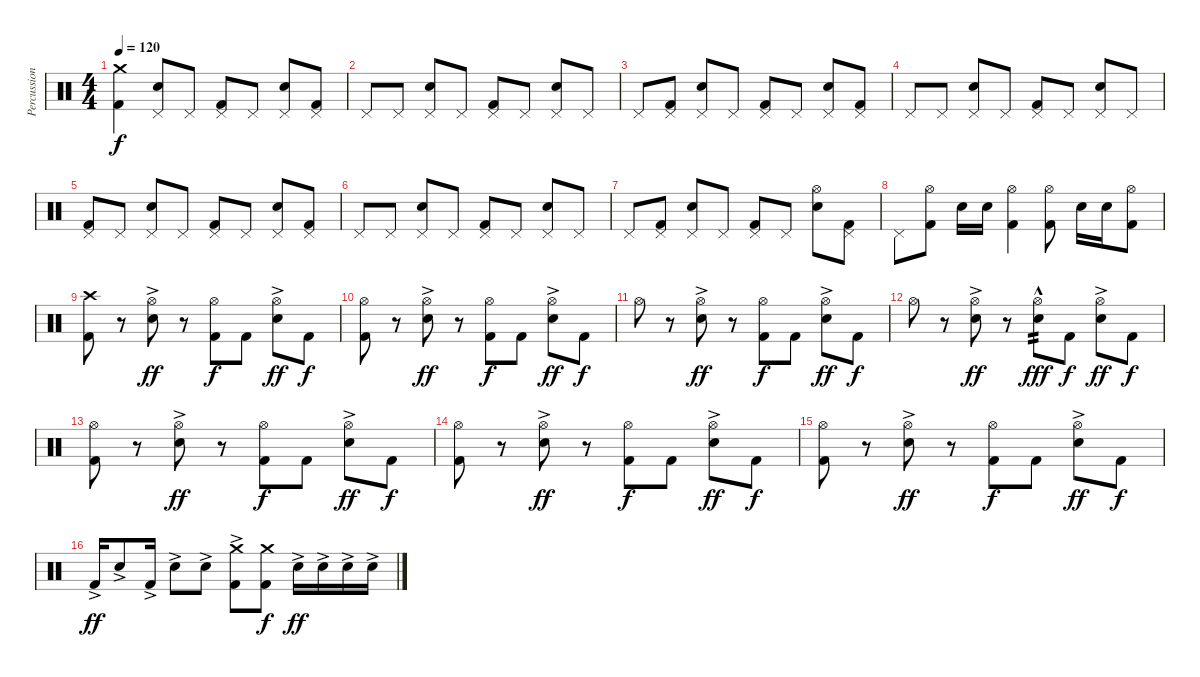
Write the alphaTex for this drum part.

\track ("Percussion" "Percussion") {instrument percussion}
\staff {score}
\articulation defaults
\ts (4 4)
\tempo 120
\clef neutral
\ks c
("Crash medium (hit)" "Kick (hit) 2").4{dy f} ("Pedal Hi-Hat (hit)" "Electric Snare (hit)").8 "Pedal Hi-Hat (hit)".8 ("Pedal Hi-Hat (hit)" "Kick (hit) 2").8 "Pedal Hi-Hat (hit)".8 ("Pedal Hi-Hat (hit)" "Electric Snare (hit)").8 ("Pedal Hi-Hat (hit)" "Kick (hit) 2").8 |
"Pedal Hi-Hat (hit)".8 "Pedal Hi-Hat (hit)".8 ("Pedal Hi-Hat (hit)" "Electric Snare (hit)").8 "Pedal Hi-Hat (hit)".8 ("Pedal Hi-Hat (hit)" "Kick (hit) 2").8 "Pedal Hi-Hat (hit)".8 ("Pedal Hi-Hat (hit)" "Electric Snare (hit)").8 "Pedal Hi-Hat (hit)".8 |
"Pedal Hi-Hat (hit)".8 ("Pedal Hi-Hat (hit)" "Kick (hit) 2").8 ("Pedal Hi-Hat (hit)" "Electric Snare (hit)").8 "Pedal Hi-Hat (hit)".8 ("Pedal Hi-Hat (hit)" "Kick (hit) 2").8 "Pedal Hi-Hat (hit)".8 ("Pedal Hi-Hat (hit)" "Electric Snare (hit)").8 ("Pedal Hi-Hat (hit)" "Kick (hit) 2").8 |
"Pedal Hi-Hat (hit)".8 "Pedal Hi-Hat (hit)".8 ("Pedal Hi-Hat (hit)" "Electric Snare (hit)").8 "Pedal Hi-Hat (hit)".8 ("Pedal Hi-Hat (hit)" "Kick (hit) 2").8 "Pedal Hi-Hat (hit)".8 ("Pedal Hi-Hat (hit)" "Electric Snare (hit)").8 "Pedal Hi-Hat (hit)".8 |
("Pedal Hi-Hat (hit)" "Kick (hit) 2").8 "Pedal Hi-Hat (hit)".8 ("Pedal Hi-Hat (hit)" "Electric Snare (hit)").8 "Pedal Hi-Hat (hit)".8 ("Pedal Hi-Hat (hit)" "Kick (hit) 2").8 "Pedal Hi-Hat (hit)".8 ("Pedal Hi-Hat (hit)" "Electric Snare (hit)").8 ("Pedal Hi-Hat (hit)" "Kick (hit) 2").8 |
"Pedal Hi-Hat (hit)".8 "Pedal Hi-Hat (hit)".8 ("Pedal Hi-Hat (hit)" "Electric Snare (hit)").8 "Pedal Hi-Hat (hit)".8 ("Pedal Hi-Hat (hit)" "Kick (hit) 2").8 "Pedal Hi-Hat (hit)".8 ("Pedal Hi-Hat (hit)" "Electric Snare (hit)").8 "Pedal Hi-Hat (hit)".8 |
"Pedal Hi-Hat (hit)".8 ("Pedal Hi-Hat (hit)" "Kick (hit) 2").8 ("Pedal Hi-Hat (hit)" "Electric Snare (hit)").8 "Pedal Hi-Hat (hit)".8 ("Pedal Hi-Hat (hit)" "Kick (hit) 2").8 "Pedal Hi-Hat (hit)".8 ("Hi-Hat (open)" "Electric Snare (hit)").8 ("Pedal Hi-Hat (hit)" "Kick (hit) 2").8 |
"Pedal Hi-Hat (hit)".8 ("Hi-Hat (open)" "Kick (hit) 2").8 "Electric Snare (hit)".16 "Electric Snare (hit)".16 ("Hi-Hat (open)" "Kick (hit) 2").4 ("Hi-Hat (open)" "Kick (hit) 2").8 "Electric Snare (hit)".16 "Electric Snare (hit)".16 ("Hi-Hat (open)" "Kick (hit) 2").8 |
("Crash high (hit)" "Kick (hit) 2").8 r.8 ("Electric Snare (hit)"{ac} "Hi-Hat (open)").8{dy ff} r.8 ("Kick (hit) 2" "Hi-Hat (open)").8{dy f} "Kick (hit) 2".8 ("Electric Snare (hit)"{ac} "Hi-Hat (open)").8{dy ff} "Kick (hit) 2".8{dy f} |
("Hi-Hat (open)" "Kick (hit) 2").8 r.8 ("Electric Snare (hit)"{ac} "Hi-Hat (open)").8{dy ff} r.8 ("Kick (hit) 2" "Hi-Hat (open)").8{dy f} "Kick (hit) 2".8 ("Electric Snare (hit)"{ac} "Hi-Hat (open)").8{dy ff} "Kick (hit) 2".8{dy f} |
"Hi-Hat (open)".8 r.8 ("Electric Snare (hit)"{ac} "Hi-Hat (open)").8{dy ff} r.8 ("Kick (hit) 2" "Hi-Hat (open)").8{dy f} "Kick (hit) 2".8 ("Electric Snare (hit)"{ac} "Hi-Hat (open)").8{dy ff} "Kick (hit) 2".8{dy f} |
"Hi-Hat (open)".8 r.8 ("Electric Snare (hit)"{ac} "Hi-Hat (open)").8{dy ff} r.8 ("Electric Snare (hit)"{hac} "Hi-Hat (open)").8{tp 2 dy fff} "Kick (hit) 2".8{dy f} ("Electric Snare (hit)"{ac} "Hi-Hat (open)").8{dy ff} "Kick (hit) 2".8{dy f} |
("Hi-Hat (open)" "Kick (hit) 2").8 r.8 ("Electric Snare (hit)"{ac} "Hi-Hat (open)").8{dy ff} r.8 ("Kick (hit) 2" "Hi-Hat (open)").8{dy f} "Kick (hit) 2".8 ("Electric Snare (hit)"{ac} "Hi-Hat (open)").8{dy ff} "Kick (hit) 2".8{dy f} |
("Hi-Hat (open)" "Kick (hit) 2").8 r.8 ("Electric Snare (hit)"{ac} "Hi-Hat (open)").8{dy ff} r.8 ("Kick (hit) 2" "Hi-Hat (open)").8{dy f} "Kick (hit) 2".8 ("Electric Snare (hit)"{ac} "Hi-Hat (open)").8{dy ff} "Kick (hit) 2".8{dy f} |
("Hi-Hat (open)" "Kick (hit) 2").8 r.8 ("Electric Snare (hit)"{ac} "Hi-Hat (open)").8{dy ff} r.8 ("Kick (hit) 2" "Hi-Hat (open)").8{dy f} "Kick (hit) 2".8 ("Electric Snare (hit)"{ac} "Hi-Hat (open)").8{dy ff} "Kick (hit) 2".8{dy f} |
"Kick (hit) 2"{ac}.16{dy ff} "Electric Snare (hit)"{ac}.8 "Kick (hit) 2"{ac}.16 "Electric Snare (hit)"{ac}.8 "Electric Snare (hit)"{ac}.8 ("Crash medium (hit)"{ac} "Kick (hit) 2"{ac}).8 ("Crash medium (hit)" "Kick (hit) 2").8{dy f} "Electric Snare (hit)"{ac}.16{dy ff} "Electric Snare (hit)"{ac}.16 "Electric Snare (hit)"{ac}.16 "Electric Snare (hit)"{ac}.16
